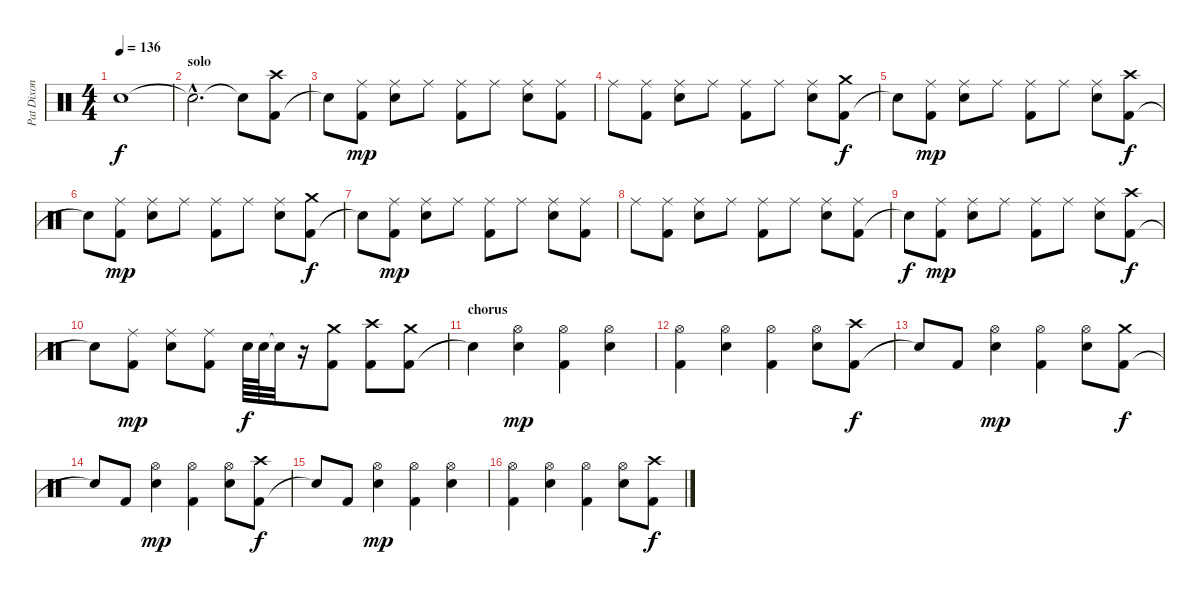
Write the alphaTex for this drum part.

\track ("Pat Dixon" "Pat Dixon") {instrument percussion}
\staff {score}
\articulation defaults
\ts (4 4)
\tempo 136
\clef neutral
\ks c "Snare (hit)"{t}.1{dy f}
|
\section ("" "solo")
"Snare (hit)"{hac t}.2{d} "Snare (hit)"{t}.8 ("Kick (hit) 2" "Crash high (hit)").8 |
"Snare (hit)"{t}.8 ("Kick (hit) 2" "Ride (middle)").8{dy mp} ("Ride (middle)" "Snare (hit) 2").8 "Ride (middle)".8 ("Kick (hit) 2" "Ride (middle)").8 "Ride (middle)".8 ("Ride (middle)" "Snare (hit) 2").8 ("Kick (hit) 2" "Ride (middle)").8 |
"Ride (middle)".8 ("Kick (hit) 2" "Ride (middle)").8 ("Ride (middle)" "Snare (hit) 2").8 "Ride (middle)".8 ("Kick (hit) 2" "Ride (middle)").8 "Ride (middle)".8 ("Ride (middle)" "Snare (hit) 2").8 ("Kick (hit) 2" "Crash medium (hit)").8{dy f} |
"Snare (hit)"{t}.8 ("Kick (hit) 2" "Ride (middle)").8{dy mp} ("Ride (middle)" "Snare (hit) 2").8 "Ride (middle)".8 ("Kick (hit) 2" "Ride (middle)").8 "Ride (middle)".8 ("Ride (middle)" "Snare (hit) 2").8 ("Kick (hit) 2" "Crash high (hit)").8{dy f} |
"Snare (hit)"{t}.8 ("Kick (hit) 2" "Ride (middle)").8{dy mp} ("Ride (middle)" "Snare (hit) 2").8 "Ride (middle)".8 ("Kick (hit) 2" "Ride (middle)").8 "Ride (middle)".8 ("Ride (middle)" "Snare (hit) 2").8 ("Kick (hit) 2" "Crash medium (hit)").8{dy f} |
"Snare (hit)"{t}.8 ("Kick (hit) 2" "Ride (middle)").8{dy mp} ("Ride (middle)" "Snare (hit) 2").8 "Ride (middle)".8 ("Kick (hit) 2" "Ride (middle)").8 "Ride (middle)".8 ("Ride (middle)" "Snare (hit) 2").8 ("Kick (hit) 2" "Ride (middle)").8 |
"Ride (middle)".8 ("Kick (hit) 2" "Ride (middle)").8 ("Ride (middle)" "Snare (hit) 2").8 "Ride (middle)".8 ("Kick (hit) 2" "Ride (middle)").8 "Ride (middle)".8 ("Ride (middle)" "Snare (hit) 2").8 ("Kick (hit) 2" "Ride (middle)").8 |
"Snare (hit)"{t}.8{dy f} ("Kick (hit) 2" "Ride (middle)").8{dy mp} ("Ride (middle)" "Snare (hit) 2").8 "Ride (middle)".8 ("Kick (hit) 2" "Ride (middle)").8 "Ride (middle)".8 ("Ride (middle)" "Snare (hit) 2").8 ("Kick (hit) 2" "Crash high (hit)").8{dy f} |
"Snare (hit)"{t}.8 ("Kick (hit) 2" "Ride (middle)").8{dy mp} ("Ride (middle)" "Snare (hit) 2").8 ("Kick (hit) 2" "Ride (middle)").8 "Snare (hit) 2".64{dy f} "Snare (hit) 2".64 "Snare (hit) 2"{t}.32 r.16 ("Kick (hit) 2" "Crash medium (hit)").8 ("Kick (hit) 2" "Crash high (hit)").8 ("Kick (hit) 2" "Crash medium (hit)").8 |
\section ("" "chorus")
"Snare (hit)"{t}.4 ("Hi-Hat (open)" "Snare (hit) 2").4{dy mp} ("Kick (hit) 2" "Hi-Hat (open)").4 ("Hi-Hat (open)" "Snare (hit) 2").4 |
("Kick (hit) 2" "Hi-Hat (open)").4 ("Hi-Hat (open)" "Snare (hit) 2").4 ("Kick (hit) 2" "Hi-Hat (open)").4 ("Hi-Hat (open)" "Snare (hit) 2").8 ("Kick (hit) 2" "Crash high (hit)").8{dy f} |
"Snare (hit)"{t}.8 "Kick (hit) 2".8 ("Hi-Hat (open)" "Snare (hit) 2").4{dy mp} ("Kick (hit) 2" "Hi-Hat (open)").4 ("Hi-Hat (open)" "Snare (hit) 2").8 ("Kick (hit) 2" "Crash medium (hit)").8{dy f} |
"Snare (hit)"{t}.8 "Kick (hit) 2".8 ("Hi-Hat (open)" "Snare (hit) 2").4{dy mp} ("Kick (hit) 2" "Hi-Hat (open)").4 ("Hi-Hat (open)" "Snare (hit) 2").8 ("Kick (hit) 2" "Crash high (hit)").8{dy f} |
"Snare (hit)"{t}.8 "Kick (hit) 2".8 ("Hi-Hat (open)" "Snare (hit) 2").4{dy mp} ("Kick (hit) 2" "Hi-Hat (open)").4 ("Hi-Hat (open)" "Snare (hit) 2").4 |
("Kick (hit) 2" "Hi-Hat (open)").4 ("Hi-Hat (open)" "Snare (hit) 2").4 ("Kick (hit) 2" "Hi-Hat (open)").4 ("Hi-Hat (open)" "Snare (hit) 2").8 ("Kick (hit) 2" "Crash high (hit)").8{dy f}
